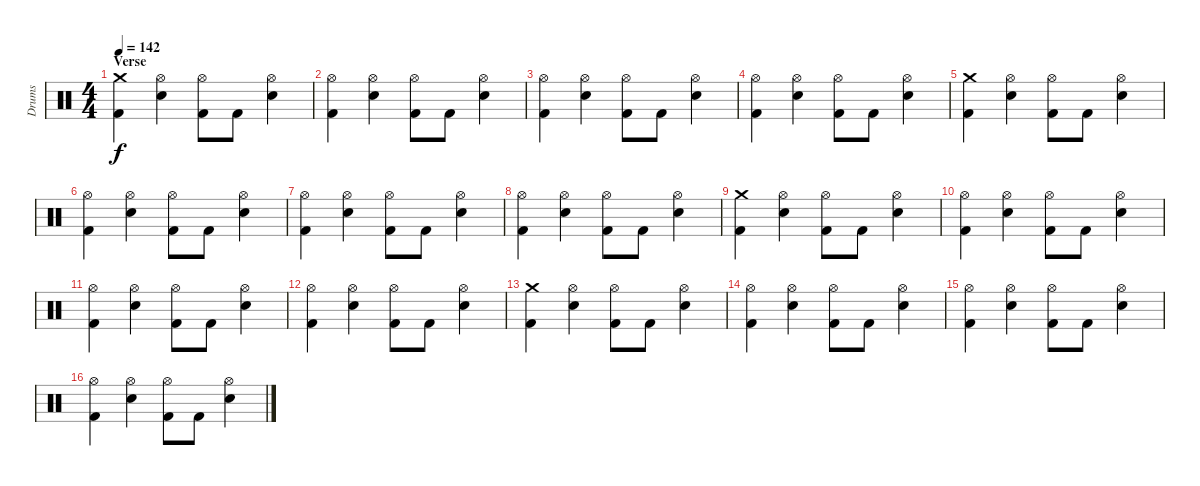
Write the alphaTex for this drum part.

\track ("Drums" "Drums") {instrument percussion}
\staff {score}
\articulation defaults
\ts (4 4)
\section ("" "Verse")
\tempo 142
\clef neutral
\ks c
("Crash medium (hit)" "Kick (hit) 2").4{dy f} ("Hi-Hat (open)" "Electric Snare (hit)").4 ("Hi-Hat (open)" "Kick (hit) 2").8 "Kick (hit) 2".8 ("Hi-Hat (open)" "Electric Snare (hit)").4 |
("Hi-Hat (open)" "Kick (hit) 2").4 ("Hi-Hat (open)" "Electric Snare (hit)").4 ("Hi-Hat (open)" "Kick (hit) 2").8 "Kick (hit) 2".8 ("Hi-Hat (open)" "Electric Snare (hit)").4 |
("Hi-Hat (open)" "Kick (hit) 2").4 ("Hi-Hat (open)" "Electric Snare (hit)").4 ("Hi-Hat (open)" "Kick (hit) 2").8 "Kick (hit) 2".8 ("Hi-Hat (open)" "Electric Snare (hit)").4 |
("Hi-Hat (open)" "Kick (hit) 2").4 ("Hi-Hat (open)" "Electric Snare (hit)").4 ("Hi-Hat (open)" "Kick (hit) 2").8 "Kick (hit) 2".8 ("Hi-Hat (open)" "Electric Snare (hit)").4 |
("Crash medium (hit)" "Kick (hit) 2").4 ("Hi-Hat (open)" "Electric Snare (hit)").4 ("Hi-Hat (open)" "Kick (hit) 2").8 "Kick (hit) 2".8 ("Hi-Hat (open)" "Electric Snare (hit)").4 |
("Hi-Hat (open)" "Kick (hit) 2").4 ("Hi-Hat (open)" "Electric Snare (hit)").4 ("Hi-Hat (open)" "Kick (hit) 2").8 "Kick (hit) 2".8 ("Hi-Hat (open)" "Electric Snare (hit)").4 |
("Hi-Hat (open)" "Kick (hit) 2").4 ("Hi-Hat (open)" "Electric Snare (hit)").4 ("Hi-Hat (open)" "Kick (hit) 2").8 "Kick (hit) 2".8 ("Hi-Hat (open)" "Electric Snare (hit)").4 |
("Hi-Hat (open)" "Kick (hit) 2").4 ("Hi-Hat (open)" "Electric Snare (hit)").4 ("Hi-Hat (open)" "Kick (hit) 2").8 "Kick (hit) 2".8 ("Hi-Hat (open)" "Electric Snare (hit)").4 |
("Crash medium (hit)" "Kick (hit) 2").4 ("Hi-Hat (open)" "Electric Snare (hit)").4 ("Hi-Hat (open)" "Kick (hit) 2").8 "Kick (hit) 2".8 ("Hi-Hat (open)" "Electric Snare (hit)").4 |
("Hi-Hat (open)" "Kick (hit) 2").4 ("Hi-Hat (open)" "Electric Snare (hit)").4 ("Hi-Hat (open)" "Kick (hit) 2").8 "Kick (hit) 2".8 ("Hi-Hat (open)" "Electric Snare (hit)").4 |
("Hi-Hat (open)" "Kick (hit) 2").4 ("Hi-Hat (open)" "Electric Snare (hit)").4 ("Hi-Hat (open)" "Kick (hit) 2").8 "Kick (hit) 2".8 ("Hi-Hat (open)" "Electric Snare (hit)").4 |
("Hi-Hat (open)" "Kick (hit) 2").4 ("Hi-Hat (open)" "Electric Snare (hit)").4 ("Hi-Hat (open)" "Kick (hit) 2").8 "Kick (hit) 2".8 ("Hi-Hat (open)" "Electric Snare (hit)").4 |
("Crash medium (hit)" "Kick (hit) 2").4 ("Hi-Hat (open)" "Electric Snare (hit)").4 ("Hi-Hat (open)" "Kick (hit) 2").8 "Kick (hit) 2".8 ("Hi-Hat (open)" "Electric Snare (hit)").4 |
("Hi-Hat (open)" "Kick (hit) 2").4 ("Hi-Hat (open)" "Electric Snare (hit)").4 ("Hi-Hat (open)" "Kick (hit) 2").8 "Kick (hit) 2".8 ("Hi-Hat (open)" "Electric Snare (hit)").4 |
("Hi-Hat (open)" "Kick (hit) 2").4 ("Hi-Hat (open)" "Electric Snare (hit)").4 ("Hi-Hat (open)" "Kick (hit) 2").8 "Kick (hit) 2".8 ("Hi-Hat (open)" "Electric Snare (hit)").4 |
("Hi-Hat (open)" "Kick (hit) 2").4 ("Hi-Hat (open)" "Electric Snare (hit)").4 ("Hi-Hat (open)" "Kick (hit) 2").8 "Kick (hit) 2".8 ("Hi-Hat (open)" "Electric Snare (hit)").4
